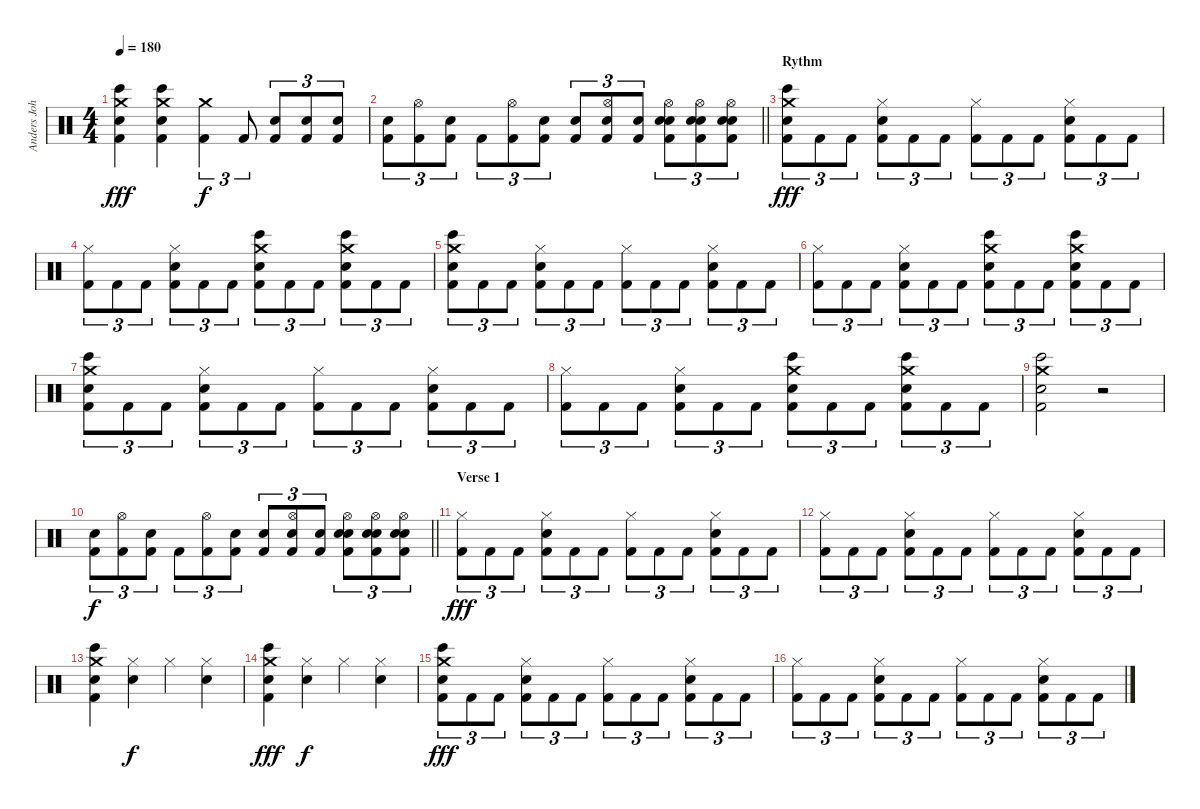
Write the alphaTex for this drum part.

\track ("Anders Johansson" "Anders Joh") {instrument percussion}
\staff {score}
\articulation defaults
\ts (4 4)
\tempo 180
\clef neutral
\ks c
("Bongo High (hit)" "Crash medium (hit)" "Snare (hit) 2" "Kick (hit) 2").4{dy fff} ("Bongo High (hit)" "Crash medium (hit)" "Snare (hit) 2" "Kick (hit) 2").4 ("Crash medium (hit)" "Kick (hit) 2").4{tu (3 2) dy f} "Kick (hit) 2".8{tu (3 2)} ("Snare (hit) 2" "Kick (hit) 2").8{tu (3 2)} ("Snare (hit) 2" "Kick (hit) 2").8{tu (3 2)} ("Snare (hit) 2" "Kick (hit) 2").8{tu (3 2)} |
\barLineRight lightlight
("Snare (hit) 2" "Kick (hit) 2").8{tu (3 2)} ("Hi-Hat (open)" "Kick (hit) 2").8{tu (3 2)} ("Snare (hit) 2" "Kick (hit) 2").8{tu (3 2)} "Kick (hit) 2".8{tu (3 2)} ("Hi-Hat (open)" "Kick (hit) 2").8{tu (3 2)} ("Snare (hit) 2" "Kick (hit) 2").8{tu (3 2)} ("Snare (hit) 2" "Kick (hit) 2").8{tu (3 2)} ("Hi-Hat (open)" "Electric Snare (hit)" "Kick (hit) 2").8{tu (3 2)} ("Snare (hit) 2" "Kick (hit) 2").8{tu (3 2)} ("Hi-Hat (open)" "Snare (hit) 2" "Electric Snare (hit)" "Kick (hit) 2").8{tu (3 2)} ("Hi-Hat (open)" "Snare (hit) 2" "Electric Snare (hit)" "Kick (hit) 2").8{tu (3 2)} ("Hi-Hat (open)" "Snare (hit) 2" "Electric Snare (hit)" "Kick (hit) 2").8{tu (3 2)} |
\section ("" "Rythm")
("Bongo High (hit)" "Crash medium (hit)" "Snare (hit) 2" "Kick (hit) 2").8{tu (3 2) dy fff} "Kick (hit) 2".8{tu (3 2)} "Kick (hit) 2".8{tu (3 2)} ("Hi-Hat (closed)" "Electric Snare (hit)" "Kick (hit) 2").8{tu (3 2)} "Kick (hit) 2".8{tu (3 2)} "Kick (hit) 2".8{tu (3 2)} ("Hi-Hat (closed)" "Kick (hit) 2").8{tu (3 2)} "Kick (hit) 2".8{tu (3 2)} "Kick (hit) 2".8{tu (3 2)} ("Hi-Hat (closed)" "Electric Snare (hit)" "Kick (hit) 2").8{tu (3 2)} "Kick (hit) 2".8{tu (3 2)} "Kick (hit) 2".8{tu (3 2)} |
("Hi-Hat (closed)" "Kick (hit) 2").8{tu (3 2)} "Kick (hit) 2".8{tu (3 2)} "Kick (hit) 2".8{tu (3 2)} ("Hi-Hat (closed)" "Electric Snare (hit)" "Kick (hit) 2").8{tu (3 2)} "Kick (hit) 2".8{tu (3 2)} "Kick (hit) 2".8{tu (3 2)} ("Bongo High (hit)" "Crash medium (hit)" "Snare (hit) 2" "Kick (hit) 2").8{tu (3 2)} "Kick (hit) 2".8{tu (3 2)} "Kick (hit) 2".8{tu (3 2)} ("Bongo High (hit)" "Crash medium (hit)" "Snare (hit) 2" "Kick (hit) 2").8{tu (3 2)} "Kick (hit) 2".8{tu (3 2)} "Kick (hit) 2".8{tu (3 2)} |
("Bongo High (hit)" "Crash medium (hit)" "Snare (hit) 2" "Kick (hit) 2").8{tu (3 2)} "Kick (hit) 2".8{tu (3 2)} "Kick (hit) 2".8{tu (3 2)} ("Hi-Hat (closed)" "Electric Snare (hit)" "Kick (hit) 2").8{tu (3 2)} "Kick (hit) 2".8{tu (3 2)} "Kick (hit) 2".8{tu (3 2)} ("Hi-Hat (closed)" "Kick (hit) 2").8{tu (3 2)} "Kick (hit) 2".8{tu (3 2)} "Kick (hit) 2".8{tu (3 2)} ("Hi-Hat (closed)" "Electric Snare (hit)" "Kick (hit) 2").8{tu (3 2)} "Kick (hit) 2".8{tu (3 2)} "Kick (hit) 2".8{tu (3 2)} |
("Hi-Hat (closed)" "Kick (hit) 2").8{tu (3 2)} "Kick (hit) 2".8{tu (3 2)} "Kick (hit) 2".8{tu (3 2)} ("Hi-Hat (closed)" "Electric Snare (hit)" "Kick (hit) 2").8{tu (3 2)} "Kick (hit) 2".8{tu (3 2)} "Kick (hit) 2".8{tu (3 2)} ("Bongo High (hit)" "Crash medium (hit)" "Snare (hit) 2" "Kick (hit) 2").8{tu (3 2)} "Kick (hit) 2".8{tu (3 2)} "Kick (hit) 2".8{tu (3 2)} ("Bongo High (hit)" "Crash medium (hit)" "Snare (hit) 2" "Kick (hit) 2").8{tu (3 2)} "Kick (hit) 2".8{tu (3 2)} "Kick (hit) 2".8{tu (3 2)} |
("Bongo High (hit)" "Crash medium (hit)" "Snare (hit) 2" "Kick (hit) 2").8{tu (3 2)} "Kick (hit) 2".8{tu (3 2)} "Kick (hit) 2".8{tu (3 2)} ("Hi-Hat (closed)" "Electric Snare (hit)" "Kick (hit) 2").8{tu (3 2)} "Kick (hit) 2".8{tu (3 2)} "Kick (hit) 2".8{tu (3 2)} ("Hi-Hat (closed)" "Kick (hit) 2").8{tu (3 2)} "Kick (hit) 2".8{tu (3 2)} "Kick (hit) 2".8{tu (3 2)} ("Hi-Hat (closed)" "Electric Snare (hit)" "Kick (hit) 2").8{tu (3 2)} "Kick (hit) 2".8{tu (3 2)} "Kick (hit) 2".8{tu (3 2)} |
("Hi-Hat (closed)" "Kick (hit) 2").8{tu (3 2)} "Kick (hit) 2".8{tu (3 2)} "Kick (hit) 2".8{tu (3 2)} ("Hi-Hat (closed)" "Electric Snare (hit)" "Kick (hit) 2").8{tu (3 2)} "Kick (hit) 2".8{tu (3 2)} "Kick (hit) 2".8{tu (3 2)} ("Bongo High (hit)" "Crash medium (hit)" "Snare (hit) 2" "Kick (hit) 2").8{tu (3 2)} "Kick (hit) 2".8{tu (3 2)} "Kick (hit) 2".8{tu (3 2)} ("Bongo High (hit)" "Crash medium (hit)" "Snare (hit) 2" "Kick (hit) 2").8{tu (3 2)} "Kick (hit) 2".8{tu (3 2)} "Kick (hit) 2".8{tu (3 2)} |
("Bongo High (hit)" "Crash medium (hit)" "Snare (hit) 2" "Kick (hit) 2").2 r.2 |
\barLineRight lightlight
("Snare (hit) 2" "Kick (hit) 2").8{tu (3 2) dy f} ("Hi-Hat (open)" "Kick (hit) 2").8{tu (3 2)} ("Snare (hit) 2" "Kick (hit) 2").8{tu (3 2)} "Kick (hit) 2".8{tu (3 2)} ("Hi-Hat (open)" "Kick (hit) 2").8{tu (3 2)} ("Snare (hit) 2" "Kick (hit) 2").8{tu (3 2)} ("Snare (hit) 2" "Kick (hit) 2").8{tu (3 2)} ("Hi-Hat (open)" "Electric Snare (hit)" "Kick (hit) 2").8{tu (3 2)} ("Snare (hit) 2" "Kick (hit) 2").8{tu (3 2)} ("Hi-Hat (open)" "Snare (hit) 2" "Electric Snare (hit)" "Kick (hit) 2").8{tu (3 2)} ("Hi-Hat (open)" "Snare (hit) 2" "Electric Snare (hit)" "Kick (hit) 2").8{tu (3 2)} ("Hi-Hat (open)" "Snare (hit) 2" "Electric Snare (hit)" "Kick (hit) 2").8{tu (3 2)} |
\section ("" "Verse 1")
("Hi-Hat (closed)" "Kick (hit) 2").8{tu (3 2) dy fff} "Kick (hit) 2".8{tu (3 2)} "Kick (hit) 2".8{tu (3 2)} ("Hi-Hat (closed)" "Electric Snare (hit)" "Kick (hit) 2").8{tu (3 2)} "Kick (hit) 2".8{tu (3 2)} "Kick (hit) 2".8{tu (3 2)} ("Hi-Hat (closed)" "Kick (hit) 2").8{tu (3 2)} "Kick (hit) 2".8{tu (3 2)} "Kick (hit) 2".8{tu (3 2)} ("Hi-Hat (closed)" "Electric Snare (hit)" "Kick (hit) 2").8{tu (3 2)} "Kick (hit) 2".8{tu (3 2)} "Kick (hit) 2".8{tu (3 2)} |
("Hi-Hat (closed)" "Kick (hit) 2").8{tu (3 2)} "Kick (hit) 2".8{tu (3 2)} "Kick (hit) 2".8{tu (3 2)} ("Hi-Hat (closed)" "Electric Snare (hit)" "Kick (hit) 2").8{tu (3 2)} "Kick (hit) 2".8{tu (3 2)} "Kick (hit) 2".8{tu (3 2)} ("Hi-Hat (closed)" "Kick (hit) 2").8{tu (3 2)} "Kick (hit) 2".8{tu (3 2)} "Kick (hit) 2".8{tu (3 2)} ("Hi-Hat (closed)" "Electric Snare (hit)" "Kick (hit) 2").8{tu (3 2)} "Kick (hit) 2".8{tu (3 2)} "Kick (hit) 2".8{tu (3 2)} |
("Bongo High (hit)" "Crash medium (hit)" "Snare (hit) 2" "Kick (hit) 2").4 ("Hi-Hat (closed)" "Electric Snare (hit)").4{dy f} "Hi-Hat (closed)".4 ("Hi-Hat (closed)" "Electric Snare (hit)").4 |
("Bongo High (hit)" "Crash medium (hit)" "Snare (hit) 2" "Kick (hit) 2").4{dy fff} ("Hi-Hat (closed)" "Electric Snare (hit)").4{dy f} "Hi-Hat (closed)".4 ("Hi-Hat (closed)" "Electric Snare (hit)").4 |
("Bongo High (hit)" "Crash medium (hit)" "Snare (hit) 2" "Kick (hit) 2").8{tu (3 2) dy fff} "Kick (hit) 2".8{tu (3 2)} "Kick (hit) 2".8{tu (3 2)} ("Hi-Hat (closed)" "Electric Snare (hit)" "Kick (hit) 2").8{tu (3 2)} "Kick (hit) 2".8{tu (3 2)} "Kick (hit) 2".8{tu (3 2)} ("Hi-Hat (closed)" "Kick (hit) 2").8{tu (3 2)} "Kick (hit) 2".8{tu (3 2)} "Kick (hit) 2".8{tu (3 2)} ("Hi-Hat (closed)" "Electric Snare (hit)" "Kick (hit) 2").8{tu (3 2)} "Kick (hit) 2".8{tu (3 2)} "Kick (hit) 2".8{tu (3 2)} |
("Hi-Hat (closed)" "Kick (hit) 2").8{tu (3 2)} "Kick (hit) 2".8{tu (3 2)} "Kick (hit) 2".8{tu (3 2)} ("Hi-Hat (closed)" "Electric Snare (hit)" "Kick (hit) 2").8{tu (3 2)} "Kick (hit) 2".8{tu (3 2)} "Kick (hit) 2".8{tu (3 2)} ("Hi-Hat (closed)" "Kick (hit) 2").8{tu (3 2)} "Kick (hit) 2".8{tu (3 2)} "Kick (hit) 2".8{tu (3 2)} ("Hi-Hat (closed)" "Electric Snare (hit)" "Kick (hit) 2").8{tu (3 2)} "Kick (hit) 2".8{tu (3 2)} "Kick (hit) 2".8{tu (3 2)}
